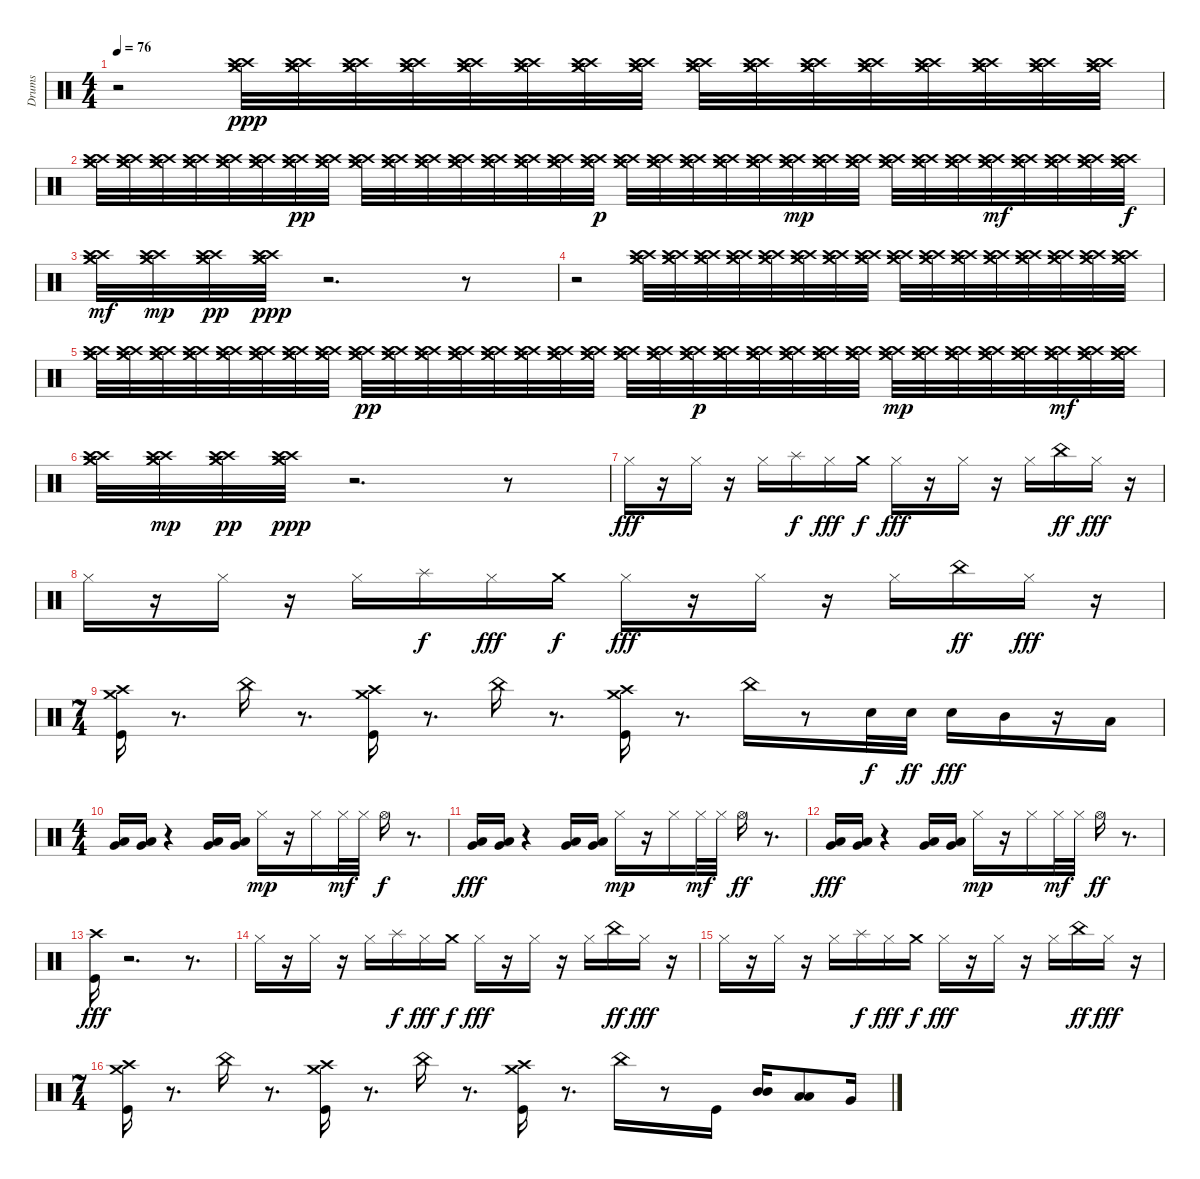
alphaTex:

\track ("Drums" "Drums") {instrument percussion}
\staff {score}
\articulation defaults
\ts (4 4)
\tempo 76
\clef neutral
\ks c
r.2{dy fff} ("Crash medium (hit)" "Crash high (hit)" "Crash medium (hit)" "Crash high (hit)").32{dy ppp} ("Crash medium (hit)" "Crash high (hit)" "Crash medium (hit)" "Crash high (hit)").32 ("Crash medium (hit)" "Crash high (hit)" "Crash medium (hit)" "Crash high (hit)").32 ("Crash medium (hit)" "Crash high (hit)" "Crash medium (hit)" "Crash high (hit)").32 ("Crash medium (hit)" "Crash high (hit)" "Crash medium (hit)" "Crash high (hit)").32 ("Crash medium (hit)" "Crash high (hit)" "Crash medium (hit)" "Crash high (hit)").32 ("Crash medium (hit)" "Crash high (hit)" "Crash medium (hit)" "Crash high (hit)").32 ("Crash medium (hit)" "Crash high (hit)" "Crash medium (hit)" "Crash high (hit)").32 ("Crash medium (hit)" "Crash high (hit)" "Crash medium (hit)" "Crash high (hit)").32 ("Crash medium (hit)" "Crash high (hit)" "Crash medium (hit)" "Crash high (hit)").32 ("Crash medium (hit)" "Crash high (hit)" "Crash medium (hit)" "Crash high (hit)").32 ("Crash medium (hit)" "Crash high (hit)" "Crash medium (hit)" "Crash high (hit)").32 ("Crash medium (hit)" "Crash high (hit)" "Crash medium (hit)" "Crash high (hit)").32 ("Crash medium (hit)" "Crash high (hit)" "Crash medium (hit)" "Crash high (hit)").32 ("Crash medium (hit)" "Crash high (hit)" "Crash medium (hit)" "Crash high (hit)").32 ("Crash medium (hit)" "Crash high (hit)" "Crash medium (hit)" "Crash high (hit)").32 |
("Crash medium (hit)" "Crash high (hit)" "Crash medium (hit)" "Crash high (hit)").32 ("Crash medium (hit)" "Crash high (hit)" "Crash medium (hit)" "Crash high (hit)").32 ("Crash medium (hit)" "Crash high (hit)" "Crash medium (hit)" "Crash high (hit)").32 ("Crash medium (hit)" "Crash high (hit)" "Crash medium (hit)" "Crash high (hit)").32 ("Crash medium (hit)" "Crash high (hit)" "Crash medium (hit)" "Crash high (hit)").32 ("Crash medium (hit)" "Crash high (hit)" "Crash medium (hit)" "Crash high (hit)").32 ("Crash medium (hit)" "Crash high (hit)" "Crash medium (hit)" "Crash high (hit)").32{dy pp} ("Crash medium (hit)" "Crash high (hit)" "Crash medium (hit)" "Crash high (hit)").32 ("Crash medium (hit)" "Crash high (hit)" "Crash medium (hit)" "Crash high (hit)").32 ("Crash medium (hit)" "Crash high (hit)" "Crash medium (hit)" "Crash high (hit)").32 ("Crash medium (hit)" "Crash high (hit)" "Crash medium (hit)" "Crash high (hit)").32 ("Crash medium (hit)" "Crash high (hit)" "Crash medium (hit)" "Crash high (hit)").32 ("Crash medium (hit)" "Crash high (hit)" "Crash medium (hit)" "Crash high (hit)").32 ("Crash medium (hit)" "Crash high (hit)" "Crash medium (hit)" "Crash high (hit)").32 ("Crash medium (hit)" "Crash high (hit)" "Crash medium (hit)" "Crash high (hit)").32 ("Crash medium (hit)" "Crash high (hit)" "Crash medium (hit)" "Crash high (hit)").32{dy p} ("Crash medium (hit)" "Crash high (hit)" "Crash medium (hit)" "Crash high (hit)").32 ("Crash medium (hit)" "Crash high (hit)" "Crash medium (hit)" "Crash high (hit)").32 ("Crash medium (hit)" "Crash high (hit)" "Crash medium (hit)" "Crash high (hit)").32 ("Crash medium (hit)" "Crash high (hit)" "Crash medium (hit)" "Crash high (hit)").32 ("Crash medium (hit)" "Crash high (hit)" "Crash medium (hit)" "Crash high (hit)").32 ("Crash medium (hit)" "Crash high (hit)" "Crash medium (hit)" "Crash high (hit)").32{dy mp} ("Crash medium (hit)" "Crash high (hit)" "Crash medium (hit)" "Crash high (hit)").32 ("Crash medium (hit)" "Crash high (hit)" "Crash medium (hit)" "Crash high (hit)").32 ("Crash medium (hit)" "Crash high (hit)" "Crash medium (hit)" "Crash high (hit)").32 ("Crash medium (hit)" "Crash high (hit)" "Crash medium (hit)" "Crash high (hit)").32 ("Crash medium (hit)" "Crash high (hit)" "Crash medium (hit)" "Crash high (hit)").32 ("Crash medium (hit)" "Crash high (hit)" "Crash medium (hit)" "Crash high (hit)").32{dy mf} ("Crash medium (hit)" "Crash high (hit)" "Crash medium (hit)" "Crash high (hit)").32 ("Crash medium (hit)" "Crash high (hit)" "Crash medium (hit)" "Crash high (hit)").32 ("Crash medium (hit)" "Crash high (hit)" "Crash medium (hit)" "Crash high (hit)").32 ("Crash medium (hit)" "Crash high (hit)" "Crash medium (hit)" "Crash high (hit)").32{dy f} |
("Crash medium (hit)" "Crash high (hit)" "Crash medium (hit)" "Crash high (hit)").32{dy mf} ("Crash medium (hit)" "Crash high (hit)" "Crash medium (hit)" "Crash high (hit)").32{dy mp} ("Crash medium (hit)" "Crash high (hit)" "Crash medium (hit)" "Crash high (hit)").32{dy pp} ("Crash medium (hit)" "Crash high (hit)" "Crash medium (hit)" "Crash high (hit)").32{dy ppp} r.2{d} r.8 |
r.2 ("Crash high (hit)" "Crash medium (hit)" "Crash high (hit)" "Crash medium (hit)").32 ("Crash high (hit)" "Crash medium (hit)" "Crash high (hit)" "Crash medium (hit)").32 ("Crash high (hit)" "Crash medium (hit)" "Crash high (hit)" "Crash medium (hit)").32 ("Crash high (hit)" "Crash medium (hit)" "Crash high (hit)" "Crash medium (hit)").32 ("Crash high (hit)" "Crash medium (hit)" "Crash high (hit)" "Crash medium (hit)").32 ("Crash high (hit)" "Crash medium (hit)" "Crash high (hit)" "Crash medium (hit)").32 ("Crash high (hit)" "Crash medium (hit)" "Crash high (hit)" "Crash medium (hit)").32 ("Crash high (hit)" "Crash medium (hit)" "Crash high (hit)" "Crash medium (hit)").32 ("Crash high (hit)" "Crash medium (hit)" "Crash high (hit)" "Crash medium (hit)").32 ("Crash high (hit)" "Crash medium (hit)" "Crash high (hit)" "Crash medium (hit)").32 ("Crash high (hit)" "Crash medium (hit)" "Crash high (hit)" "Crash medium (hit)").32 ("Crash high (hit)" "Crash medium (hit)" "Crash high (hit)" "Crash medium (hit)").32 ("Crash high (hit)" "Crash medium (hit)" "Crash high (hit)" "Crash medium (hit)").32 ("Crash high (hit)" "Crash medium (hit)" "Crash high (hit)" "Crash medium (hit)").32 ("Crash high (hit)" "Crash medium (hit)" "Crash high (hit)" "Crash medium (hit)").32 ("Crash high (hit)" "Crash medium (hit)" "Crash high (hit)" "Crash medium (hit)").32 |
("Crash high (hit)" "Crash medium (hit)" "Crash high (hit)" "Crash medium (hit)").32 ("Crash high (hit)" "Crash medium (hit)" "Crash high (hit)" "Crash medium (hit)").32 ("Crash high (hit)" "Crash medium (hit)" "Crash high (hit)" "Crash medium (hit)").32 ("Crash high (hit)" "Crash medium (hit)" "Crash high (hit)" "Crash medium (hit)").32 ("Crash high (hit)" "Crash medium (hit)" "Crash high (hit)" "Crash medium (hit)").32 ("Crash high (hit)" "Crash medium (hit)" "Crash high (hit)" "Crash medium (hit)").32 ("Crash high (hit)" "Crash medium (hit)" "Crash high (hit)" "Crash medium (hit)").32 ("Crash high (hit)" "Crash medium (hit)" "Crash high (hit)" "Crash medium (hit)").32 ("Crash high (hit)" "Crash medium (hit)" "Crash high (hit)" "Crash medium (hit)").32{dy pp} ("Crash high (hit)" "Crash medium (hit)" "Crash high (hit)" "Crash medium (hit)").32 ("Crash high (hit)" "Crash medium (hit)" "Crash high (hit)" "Crash medium (hit)").32 ("Crash high (hit)" "Crash medium (hit)" "Crash high (hit)" "Crash medium (hit)").32 ("Crash high (hit)" "Crash medium (hit)" "Crash high (hit)" "Crash medium (hit)").32 ("Crash high (hit)" "Crash medium (hit)" "Crash high (hit)" "Crash medium (hit)").32 ("Crash high (hit)" "Crash medium (hit)" "Crash high (hit)" "Crash medium (hit)").32 ("Crash high (hit)" "Crash medium (hit)" "Crash high (hit)" "Crash medium (hit)").32 ("Crash high (hit)" "Crash medium (hit)" "Crash high (hit)" "Crash medium (hit)").32 ("Crash high (hit)" "Crash medium (hit)" "Crash high (hit)" "Crash medium (hit)").32 ("Crash high (hit)" "Crash medium (hit)" "Crash high (hit)" "Crash medium (hit)").32{dy p} ("Crash high (hit)" "Crash medium (hit)" "Crash high (hit)" "Crash medium (hit)").32 ("Crash high (hit)" "Crash medium (hit)" "Crash high (hit)" "Crash medium (hit)").32 ("Crash high (hit)" "Crash medium (hit)" "Crash high (hit)" "Crash medium (hit)").32 ("Crash high (hit)" "Crash medium (hit)" "Crash high (hit)" "Crash medium (hit)").32 ("Crash high (hit)" "Crash medium (hit)" "Crash high (hit)" "Crash medium (hit)").32 ("Crash high (hit)" "Crash medium (hit)" "Crash high (hit)" "Crash medium (hit)").32{dy mp} ("Crash high (hit)" "Crash medium (hit)" "Crash high (hit)" "Crash medium (hit)").32 ("Crash high (hit)" "Crash medium (hit)" "Crash high (hit)" "Crash medium (hit)").32 ("Crash high (hit)" "Crash medium (hit)" "Crash high (hit)" "Crash medium (hit)").32 ("Crash high (hit)" "Crash medium (hit)" "Crash high (hit)" "Crash medium (hit)").32 ("Crash high (hit)" "Crash medium (hit)" "Crash high (hit)" "Crash medium (hit)").32{dy mf} ("Crash high (hit)" "Crash medium (hit)" "Crash high (hit)" "Crash medium (hit)").32 ("Crash high (hit)" "Crash medium (hit)" "Crash high (hit)" "Crash medium (hit)").32 |
("Crash high (hit)" "Crash medium (hit)" "Crash high (hit)" "Crash medium (hit)").32 ("Crash high (hit)" "Crash medium (hit)" "Crash high (hit)" "Crash medium (hit)").32{dy mp} ("Crash high (hit)" "Crash medium (hit)" "Crash high (hit)" "Crash medium (hit)").32{dy pp} ("Crash high (hit)" "Crash medium (hit)" "Crash high (hit)" "Crash medium (hit)").32{dy ppp} r.2{d} r.8 |
"Hi-Hat (closed)".16{dy fff} r.16 "Hi-Hat (closed)".16 r.16 "Hi-Hat (closed)".16 "Splash (hit)".16{dy f} "Hi-Hat (closed)".16{dy fff} "Crash medium (hit)".16{dy f} "Hi-Hat (closed)".16{dy fff} r.16 "Hi-Hat (closed)".16 r.16 "Hi-Hat (closed)".16 "China (hit)".16{dy ff} "Hi-Hat (closed)".16{dy fff} r.16 |
"Hi-Hat (closed)".16 r.16 "Hi-Hat (closed)".16 r.16 "Hi-Hat (closed)".16 "Splash (hit)".16{dy f} "Hi-Hat (closed)".16{dy fff} "Crash medium (hit)".16{dy f} "Hi-Hat (closed)".16{dy fff} r.16 "Hi-Hat (closed)".16 r.16 "Hi-Hat (closed)".16 "China (hit)".16{dy ff} "Hi-Hat (closed)".16{dy fff} r.16 |
\ts (7 4)
("Crash medium (hit)" "Crash high (hit)" "Kick (hit)").16 r.8{d} "China (hit)".16 r.8{d} ("Crash medium (hit)" "Crash high (hit)" "Kick (hit)").16 r.8{d} "China (hit)".16 r.8{d} ("Crash medium (hit)" "Crash high (hit)" "Kick (hit)").16 r.8{d} "China (hit)".16 r.8 "Electric Snare (hit)".32{dy f} "Electric Snare (hit)".32{dy ff} "Electric Snare (hit)".16{dy fff} "Mid Tom (hit)".16 r.16 "Low Tom (hit)".16 |
\ts (4 4)
("Low Floor Tom (hit)" "Very Low Tom (hit)").16 ("Low Floor Tom (hit)" "Very Low Tom (hit)").16 r.4 ("Low Floor Tom (hit)" "Very Low Tom (hit)").16 ("Low Floor Tom (hit)" "Very Low Tom (hit)").16 "Hi-Hat (closed)".16{dy mp} r.16 "Hi-Hat (closed)".16 "Hi-Hat (closed)".32{dy mf} "Hi-Hat (closed)".32 "Hi-Hat (open)".16{dy f} r.8{d} |
("Very Low Tom (hit)" "Low Floor Tom (hit)").16{dy fff} ("Very Low Tom (hit)" "Low Floor Tom (hit)").16 r.4 ("Very Low Tom (hit)" "Low Floor Tom (hit)").16 ("Very Low Tom (hit)" "Low Floor Tom (hit)").16 "Hi-Hat (closed)".16{dy mp} r.16 "Hi-Hat (closed)".16 "Hi-Hat (closed)".32{dy mf} "Hi-Hat (closed)".32 "Hi-Hat (open)".16{dy ff} r.8{d} |
("Very Low Tom (hit)" "Low Floor Tom (hit)").16{dy fff} ("Very Low Tom (hit)" "Low Floor Tom (hit)").16 r.4 ("Very Low Tom (hit)" "Low Floor Tom (hit)").16 ("Very Low Tom (hit)" "Low Floor Tom (hit)").16 "Hi-Hat (closed)".16{dy mp} r.16 "Hi-Hat (closed)".16 "Hi-Hat (closed)".32{dy mf} "Hi-Hat (closed)".32 "Hi-Hat (open)".16{dy ff} r.8{d} |
("Kick (hit)" "Crash high (hit)").16{dy fff} r.2{d} r.8{d} |
"Hi-Hat (closed)".16 r.16 "Hi-Hat (closed)".16 r.16 "Hi-Hat (closed)".16 "Splash (hit)".16{dy f} "Hi-Hat (closed)".16{dy fff} "Crash medium (hit)".16{dy f} "Hi-Hat (closed)".16{dy fff} r.16 "Hi-Hat (closed)".16 r.16 "Hi-Hat (closed)".16 "China (hit)".16{dy ff} "Hi-Hat (closed)".16{dy fff} r.16 |
"Hi-Hat (closed)".16 r.16 "Hi-Hat (closed)".16 r.16 "Hi-Hat (closed)".16 "Splash (hit)".16{dy f} "Hi-Hat (closed)".16{dy fff} "Crash medium (hit)".16{dy f} "Hi-Hat (closed)".16{dy fff} r.16 "Hi-Hat (closed)".16 r.16 "Hi-Hat (closed)".16 "China (hit)".16{dy ff} "Hi-Hat (closed)".16{dy fff} r.16 |
\ts (7 4)
("Kick (hit)" "Crash high (hit)" "Crash medium (hit)").16 r.8{d} "China (hit)".16 r.8{d} ("Kick (hit)" "Crash high (hit)" "Crash medium (hit)").16 r.8{d} "China (hit)".16 r.8{d} ("Kick (hit)" "Crash high (hit)" "Crash medium (hit)").16 r.8{d} "China (hit)".16 r.8 "Kick (hit)".16 ("Mid Tom (hit)" "Mid Tom (hit)").16 ("Low Tom (hit)" "Low Tom (hit)").8 "Very Low Tom (hit)".16
